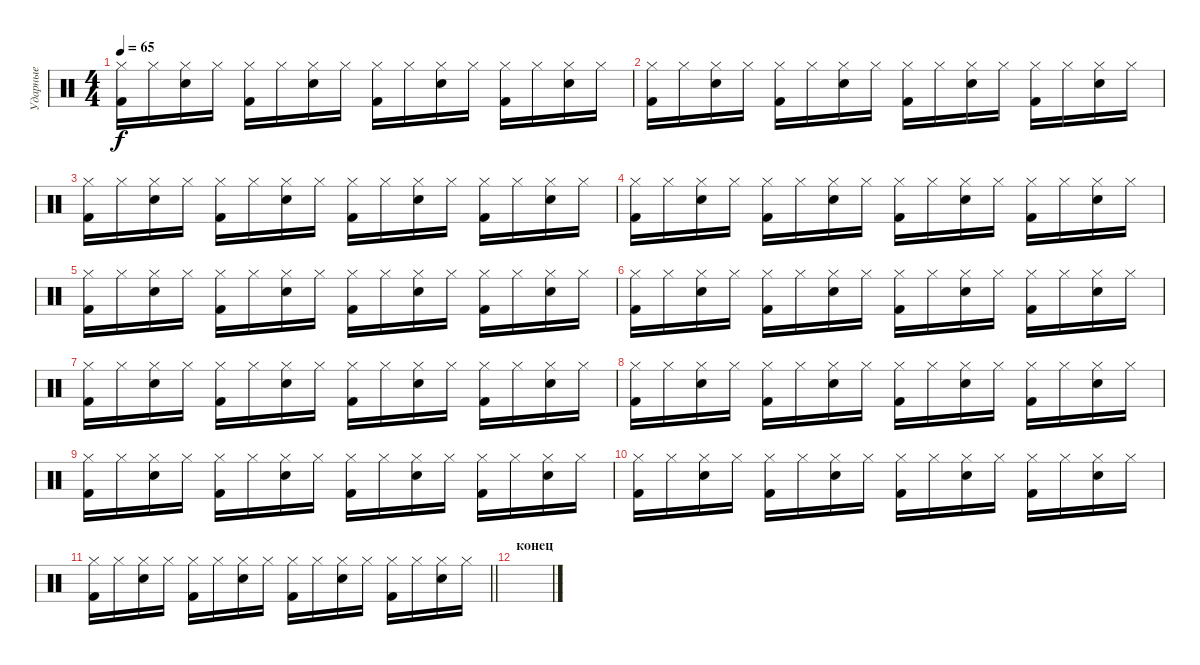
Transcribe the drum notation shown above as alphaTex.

\track ("Ударные" "Ударные") {instrument percussion}
\staff {score}
\articulation defaults
\ts (4 4)
\tempo 65
\clef neutral
\ks c
("Hi-Hat (closed)" "Kick (hit) 2").16{dy f} "Hi-Hat (closed)".16 ("Hi-Hat (closed)" "Snare (hit) 2").16 "Hi-Hat (closed)".16 ("Hi-Hat (closed)" "Kick (hit) 2").16 "Hi-Hat (closed)".16 ("Hi-Hat (closed)" "Snare (hit) 2").16 "Hi-Hat (closed)".16 ("Hi-Hat (closed)" "Kick (hit) 2").16 "Hi-Hat (closed)".16 ("Hi-Hat (closed)" "Snare (hit) 2").16 "Hi-Hat (closed)".16 ("Hi-Hat (closed)" "Kick (hit) 2").16 "Hi-Hat (closed)".16 ("Hi-Hat (closed)" "Snare (hit) 2").16 "Hi-Hat (closed)".16 |
("Hi-Hat (closed)" "Kick (hit) 2").16 "Hi-Hat (closed)".16 ("Hi-Hat (closed)" "Snare (hit) 2").16 "Hi-Hat (closed)".16 ("Hi-Hat (closed)" "Kick (hit) 2").16 "Hi-Hat (closed)".16 ("Hi-Hat (closed)" "Snare (hit) 2").16 "Hi-Hat (closed)".16 ("Hi-Hat (closed)" "Kick (hit) 2").16 "Hi-Hat (closed)".16 ("Hi-Hat (closed)" "Snare (hit) 2").16 "Hi-Hat (closed)".16 ("Hi-Hat (closed)" "Kick (hit) 2").16 "Hi-Hat (closed)".16 ("Hi-Hat (closed)" "Snare (hit) 2").16 "Hi-Hat (closed)".16 |
("Hi-Hat (closed)" "Kick (hit) 2").16 "Hi-Hat (closed)".16 ("Hi-Hat (closed)" "Snare (hit) 2").16 "Hi-Hat (closed)".16 ("Hi-Hat (closed)" "Kick (hit) 2").16 "Hi-Hat (closed)".16 ("Hi-Hat (closed)" "Snare (hit) 2").16 "Hi-Hat (closed)".16 ("Hi-Hat (closed)" "Kick (hit) 2").16 "Hi-Hat (closed)".16 ("Hi-Hat (closed)" "Snare (hit) 2").16 "Hi-Hat (closed)".16 ("Hi-Hat (closed)" "Kick (hit) 2").16 "Hi-Hat (closed)".16 ("Hi-Hat (closed)" "Snare (hit) 2").16 "Hi-Hat (closed)".16 |
("Hi-Hat (closed)" "Kick (hit) 2").16 "Hi-Hat (closed)".16 ("Hi-Hat (closed)" "Snare (hit) 2").16 "Hi-Hat (closed)".16 ("Hi-Hat (closed)" "Kick (hit) 2").16 "Hi-Hat (closed)".16 ("Hi-Hat (closed)" "Snare (hit) 2").16 "Hi-Hat (closed)".16 ("Hi-Hat (closed)" "Kick (hit) 2").16 "Hi-Hat (closed)".16 ("Hi-Hat (closed)" "Snare (hit) 2").16 "Hi-Hat (closed)".16 ("Hi-Hat (closed)" "Kick (hit) 2").16 "Hi-Hat (closed)".16 ("Hi-Hat (closed)" "Snare (hit) 2").16 "Hi-Hat (closed)".16 |
("Hi-Hat (closed)" "Kick (hit) 2").16 "Hi-Hat (closed)".16 ("Hi-Hat (closed)" "Snare (hit) 2").16 "Hi-Hat (closed)".16 ("Hi-Hat (closed)" "Kick (hit) 2").16 "Hi-Hat (closed)".16 ("Hi-Hat (closed)" "Snare (hit) 2").16 "Hi-Hat (closed)".16 ("Hi-Hat (closed)" "Kick (hit) 2").16 "Hi-Hat (closed)".16 ("Hi-Hat (closed)" "Snare (hit) 2").16 "Hi-Hat (closed)".16 ("Hi-Hat (closed)" "Kick (hit) 2").16 "Hi-Hat (closed)".16 ("Hi-Hat (closed)" "Snare (hit) 2").16 "Hi-Hat (closed)".16 |
("Hi-Hat (closed)" "Kick (hit) 2").16 "Hi-Hat (closed)".16 ("Hi-Hat (closed)" "Snare (hit) 2").16 "Hi-Hat (closed)".16 ("Hi-Hat (closed)" "Kick (hit) 2").16 "Hi-Hat (closed)".16 ("Hi-Hat (closed)" "Snare (hit) 2").16 "Hi-Hat (closed)".16 ("Hi-Hat (closed)" "Kick (hit) 2").16 "Hi-Hat (closed)".16 ("Hi-Hat (closed)" "Snare (hit) 2").16 "Hi-Hat (closed)".16 ("Hi-Hat (closed)" "Kick (hit) 2").16 "Hi-Hat (closed)".16 ("Hi-Hat (closed)" "Snare (hit) 2").16 "Hi-Hat (closed)".16 |
("Hi-Hat (closed)" "Kick (hit) 2").16 "Hi-Hat (closed)".16 ("Hi-Hat (closed)" "Snare (hit) 2").16 "Hi-Hat (closed)".16 ("Hi-Hat (closed)" "Kick (hit) 2").16 "Hi-Hat (closed)".16 ("Hi-Hat (closed)" "Snare (hit) 2").16 "Hi-Hat (closed)".16 ("Hi-Hat (closed)" "Kick (hit) 2").16 "Hi-Hat (closed)".16 ("Hi-Hat (closed)" "Snare (hit) 2").16 "Hi-Hat (closed)".16 ("Hi-Hat (closed)" "Kick (hit) 2").16 "Hi-Hat (closed)".16 ("Hi-Hat (closed)" "Snare (hit) 2").16 "Hi-Hat (closed)".16 |
("Hi-Hat (closed)" "Kick (hit) 2").16 "Hi-Hat (closed)".16 ("Hi-Hat (closed)" "Snare (hit) 2").16 "Hi-Hat (closed)".16 ("Hi-Hat (closed)" "Kick (hit) 2").16 "Hi-Hat (closed)".16 ("Hi-Hat (closed)" "Snare (hit) 2").16 "Hi-Hat (closed)".16 ("Hi-Hat (closed)" "Kick (hit) 2").16 "Hi-Hat (closed)".16 ("Hi-Hat (closed)" "Snare (hit) 2").16 "Hi-Hat (closed)".16 ("Hi-Hat (closed)" "Kick (hit) 2").16 "Hi-Hat (closed)".16 ("Hi-Hat (closed)" "Snare (hit) 2").16 "Hi-Hat (closed)".16 |
("Hi-Hat (closed)" "Kick (hit) 2").16 "Hi-Hat (closed)".16 ("Hi-Hat (closed)" "Snare (hit) 2").16 "Hi-Hat (closed)".16 ("Hi-Hat (closed)" "Kick (hit) 2").16 "Hi-Hat (closed)".16 ("Hi-Hat (closed)" "Snare (hit) 2").16 "Hi-Hat (closed)".16 ("Hi-Hat (closed)" "Kick (hit) 2").16 "Hi-Hat (closed)".16 ("Hi-Hat (closed)" "Snare (hit) 2").16 "Hi-Hat (closed)".16 ("Hi-Hat (closed)" "Kick (hit) 2").16 "Hi-Hat (closed)".16 ("Hi-Hat (closed)" "Snare (hit) 2").16 "Hi-Hat (closed)".16 |
("Hi-Hat (closed)" "Kick (hit) 2").16 "Hi-Hat (closed)".16 ("Hi-Hat (closed)" "Snare (hit) 2").16 "Hi-Hat (closed)".16 ("Hi-Hat (closed)" "Kick (hit) 2").16 "Hi-Hat (closed)".16 ("Hi-Hat (closed)" "Snare (hit) 2").16 "Hi-Hat (closed)".16 ("Hi-Hat (closed)" "Kick (hit) 2").16 "Hi-Hat (closed)".16 ("Hi-Hat (closed)" "Snare (hit) 2").16 "Hi-Hat (closed)".16 ("Hi-Hat (closed)" "Kick (hit) 2").16 "Hi-Hat (closed)".16 ("Hi-Hat (closed)" "Snare (hit) 2").16 "Hi-Hat (closed)".16 |
\barLineRight lightlight
("Hi-Hat (closed)" "Kick (hit) 2").16 "Hi-Hat (closed)".16 ("Hi-Hat (closed)" "Snare (hit) 2").16 "Hi-Hat (closed)".16 ("Hi-Hat (closed)" "Kick (hit) 2").16 "Hi-Hat (closed)".16 ("Hi-Hat (closed)" "Snare (hit) 2").16 "Hi-Hat (closed)".16 ("Hi-Hat (closed)" "Kick (hit) 2").16 "Hi-Hat (closed)".16 ("Hi-Hat (closed)" "Snare (hit) 2").16 "Hi-Hat (closed)".16 ("Hi-Hat (closed)" "Kick (hit) 2").16 "Hi-Hat (closed)".16 ("Hi-Hat (closed)" "Snare (hit) 2").16 "Hi-Hat (closed)".16 |
\section ("" "конец")
